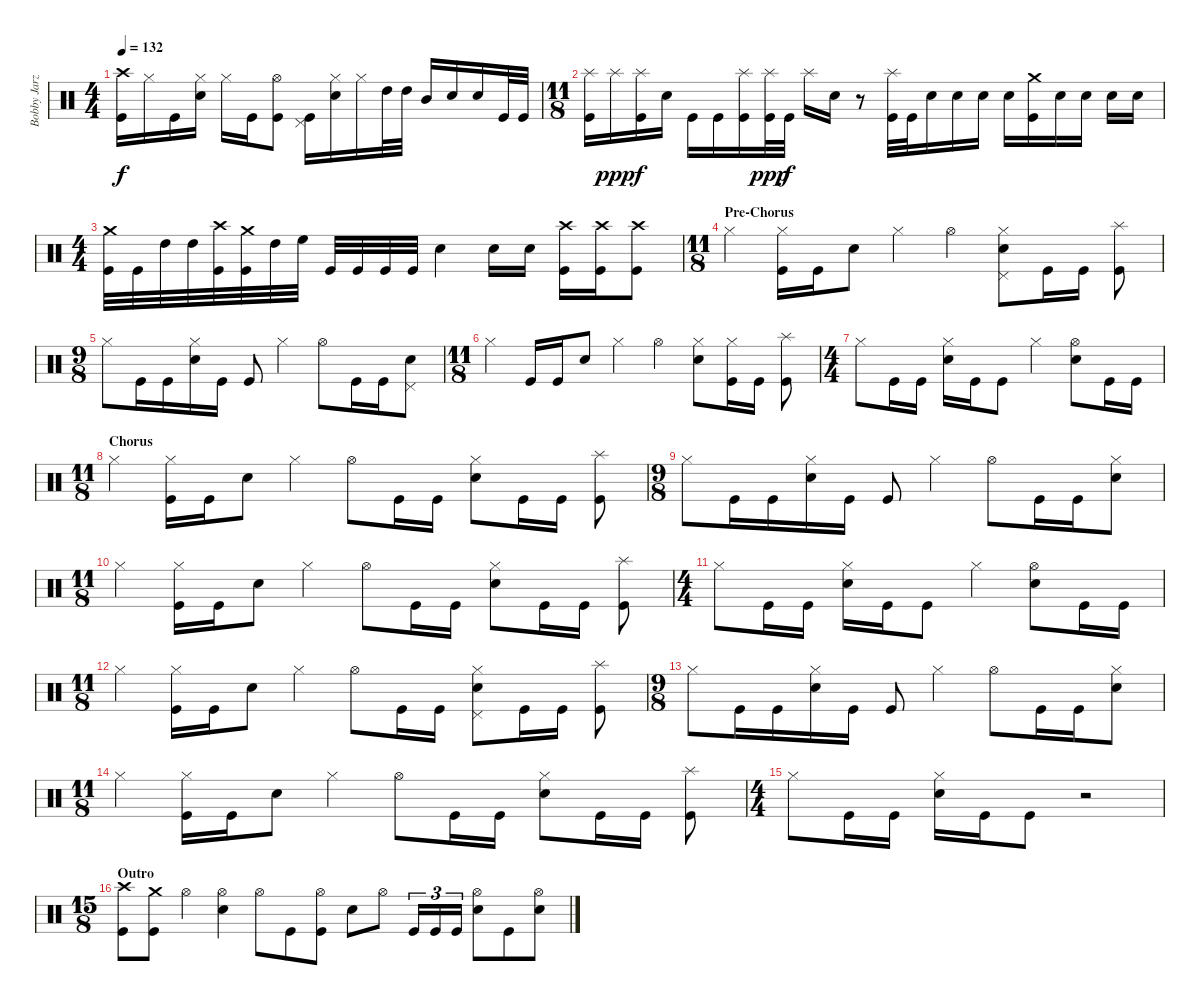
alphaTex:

\track ("Bobby Jarzombek" "Bobby Jarz") {instrument percussion}
\staff {score}
\articulation defaults
\ts (4 4)
\tempo 132
\clef neutral
\ks c
("Crash high (hit)" "Kick (hit)").16{dy f} "Hi-Hat (closed)".16 "Kick (hit)".16 ("Hi-Hat (closed)" "Electric Snare (hit)").16 "Hi-Hat (closed)".16 "Kick (hit)".16 ("Hi-Hat (open)" "Kick (hit)").8 ("Pedal Hi-Hat (hit)" "Kick (hit)").16 ("Hi-Hat (closed)" "Electric Snare (hit)").16 "Hi-Hat (closed)".16 "High Tom (hit)".32 "High Tom (hit)".32 "Mid Tom (hit)".16 "Electric Snare (hit)".16 "Electric Snare (hit)".16 "Kick (hit)".32 "Kick (hit)".32 |
\ts (11 8)
("Splash (hit)" "Kick (hit)").16 "Splash (hit)".16{dy ppp} ("Splash (hit)" "Kick (hit)").16{dy f} "Electric Snare (hit)".16 "Kick (hit)".16 "Kick (hit)".16 ("Splash (hit)" "Kick (hit)").16 ("Splash (hit)" "Kick (hit)").32{dy ppp} "Kick (hit)".32{dy f} "Splash (hit)".16 "Electric Snare (hit)".16 r.8 ("Splash (hit)" "Kick (hit)").32 "Kick (hit)".32 "Electric Snare (hit)".16 "Electric Snare (hit)".16 "Electric Snare (hit)".16 "Electric Snare (hit)".16 ("Crash medium (hit)" "Kick (hit)").16 "Electric Snare (hit)".16 "Electric Snare (hit)".16 "Electric Snare (hit)".16 "Electric Snare (hit)".16 |
\ts (4 4)
("Crash medium (hit)" "Kick (hit)").32 "Kick (hit)".32 "High Tom (hit)".32 "High Tom (hit)".32 ("Crash high (hit)" "Kick (hit)").32 ("Crash medium (hit)" "Kick (hit)").32 "High Tom (hit)".32 "High Floor Tom (hit)".32 "Kick (hit)".32 "Kick (hit)".32 "Kick (hit)".32 "Kick (hit)".32 "Electric Snare (hit)".4 "Electric Snare (hit)".16 "Electric Snare (hit)".16 ("Crash high (hit)" "Kick (hit)").16 ("Crash high (hit)" "Kick (hit)").16 ("Crash high (hit)" "Kick (hit)").8 |
\ts (11 8)
\section ("" "Pre-Chorus")
"Hi-Hat (closed)".4 ("Hi-Hat (closed)" "Kick (hit)").16 "Kick (hit)".16 "Electric Snare (hit)".8 "Hi-Hat (closed)".4 "Hi-Hat (open)".4 ("Hi-Hat (closed)" "Electric Snare (hit)" "Pedal Hi-Hat (hit)").8 "Kick (hit)".16 "Kick (hit)".16 ("Splash (hit)" "Kick (hit)").8 |
\ts (9 8)
"Hi-Hat (closed)".8 "Kick (hit)".16 "Kick (hit)".16 ("Hi-Hat (closed)" "Electric Snare (hit)").16 "Kick (hit)".16 "Kick (hit)".8 "Hi-Hat (closed)".4 "Hi-Hat (open)".8 "Kick (hit)".16 "Kick (hit)".16 ("Electric Snare (hit)" "Pedal Hi-Hat (hit)").8 |
\ts (11 8)
"Hi-Hat (closed)".4 "Kick (hit)".16 "Kick (hit)".16 "Electric Snare (hit)".8 "Hi-Hat (closed)".4 "Hi-Hat (open)".4 ("Hi-Hat (closed)" "Electric Snare (hit)").8 ("Hi-Hat (closed)" "Kick (hit)").16 "Kick (hit)".16 ("Splash (hit)" "Kick (hit)").8 |
\ts (4 4)
"Hi-Hat (closed)".8 "Kick (hit)".16 "Kick (hit)".16 ("Hi-Hat (closed)" "Electric Snare (hit)").16 "Kick (hit)".16 "Kick (hit)".8 "Hi-Hat (closed)".4 ("Hi-Hat (open)" "Electric Snare (hit)").8 "Kick (hit)".16 "Kick (hit)".16 |
\ts (11 8)
\section ("" "Chorus")
"Hi-Hat (closed)".4 ("Hi-Hat (closed)" "Kick (hit)").16 "Kick (hit)".16 "Electric Snare (hit)".8 "Hi-Hat (closed)".4 "Hi-Hat (open)".8 "Kick (hit)".16 "Kick (hit)".16 ("Hi-Hat (closed)" "Electric Snare (hit)").8 "Kick (hit)".16 "Kick (hit)".16 ("Splash (hit)" "Kick (hit)").8 |
\ts (9 8)
"Hi-Hat (closed)".8 "Kick (hit)".16 "Kick (hit)".16 ("Hi-Hat (closed)" "Electric Snare (hit)").16 "Kick (hit)".16 "Kick (hit)".8 "Hi-Hat (closed)".4 "Hi-Hat (open)".8 "Kick (hit)".16 "Kick (hit)".16 ("Hi-Hat (closed)" "Electric Snare (hit)").8 |
\ts (11 8)
"Hi-Hat (closed)".4 ("Hi-Hat (closed)" "Kick (hit)").16 "Kick (hit)".16 "Electric Snare (hit)".8 "Hi-Hat (closed)".4 "Hi-Hat (open)".8 "Kick (hit)".16 "Kick (hit)".16 ("Hi-Hat (closed)" "Electric Snare (hit)").8 "Kick (hit)".16 "Kick (hit)".16 ("Splash (hit)" "Kick (hit)").8 |
\ts (4 4)
"Hi-Hat (closed)".8 "Kick (hit)".16 "Kick (hit)".16 ("Hi-Hat (closed)" "Electric Snare (hit)").16 "Kick (hit)".16 "Kick (hit)".8 "Hi-Hat (closed)".4 ("Hi-Hat (open)" "Electric Snare (hit)").8 "Kick (hit)".16 "Kick (hit)".16 |
\ts (11 8)
"Hi-Hat (closed)".4 ("Hi-Hat (closed)" "Kick (hit)").16 "Kick (hit)".16 "Electric Snare (hit)".8 "Hi-Hat (closed)".4 "Hi-Hat (open)".8 "Kick (hit)".16 "Kick (hit)".16 ("Hi-Hat (closed)" "Electric Snare (hit)" "Pedal Hi-Hat (hit)").8 "Kick (hit)".16 "Kick (hit)".16 ("Splash (hit)" "Kick (hit)").8 |
\ts (9 8)
"Hi-Hat (closed)".8 "Kick (hit)".16 "Kick (hit)".16 ("Hi-Hat (closed)" "Electric Snare (hit)").16 "Kick (hit)".16 "Kick (hit)".8 "Hi-Hat (closed)".4 "Hi-Hat (open)".8 "Kick (hit)".16 "Kick (hit)".16 ("Hi-Hat (closed)" "Electric Snare (hit)").8 |
\ts (11 8)
"Hi-Hat (closed)".4 ("Hi-Hat (closed)" "Kick (hit)").16 "Kick (hit)".16 "Electric Snare (hit)".8 "Hi-Hat (closed)".4 "Hi-Hat (open)".8 "Kick (hit)".16 "Kick (hit)".16 ("Hi-Hat (closed)" "Electric Snare (hit)").8 "Kick (hit)".16 "Kick (hit)".16 ("Splash (hit)" "Kick (hit)").8 |
\ts (4 4)
"Hi-Hat (closed)".8 "Kick (hit)".16 "Kick (hit)".16 ("Hi-Hat (closed)" "Electric Snare (hit)").16 "Kick (hit)".16 "Kick (hit)".8 r.2 |
\ts (15 8)
\section ("" "Outro")
("Crash high (hit)" "Kick (hit)").8 ("Crash medium (hit)" "Kick (hit)").8 "Hi-Hat (open)".4 ("Hi-Hat (open)" "Electric Snare (hit)").4 "Hi-Hat (open)".8 "Kick (hit)".8 ("Hi-Hat (open)" "Kick (hit)").8 "Electric Snare (hit)".8 "Hi-Hat (open)".8 "Kick (hit)".16{tu (3 2)} "Kick (hit)".16{tu (3 2)} "Kick (hit)".16{tu (3 2)} ("Hi-Hat (open)" "Electric Snare (hit)").8 "Kick (hit)".8 ("Hi-Hat (open)" "Electric Snare (hit)").8
